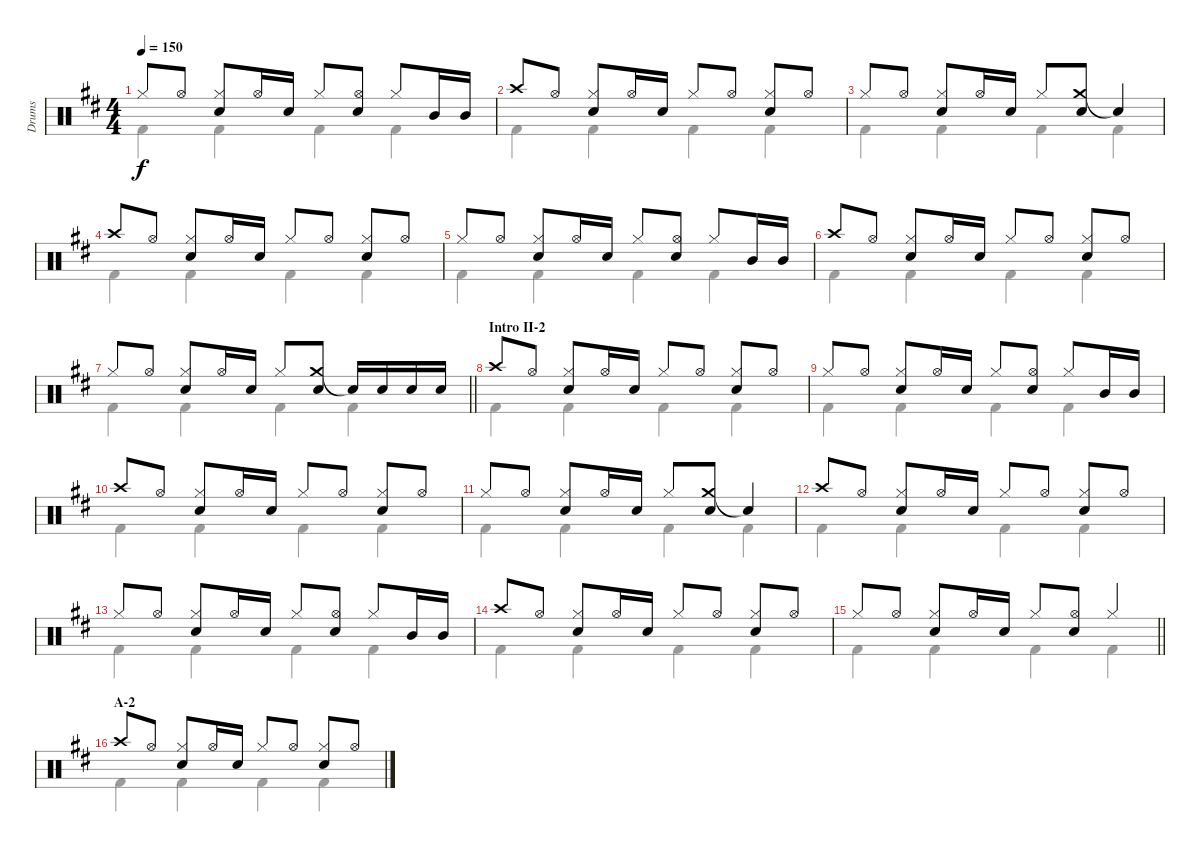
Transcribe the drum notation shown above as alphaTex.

\track ("Drums" "Drums") {instrument percussion}
\staff {score}
\articulation defaults
\voice
\ts (4 4)
\tempo 150
\clef neutral
\ks d "Hi-Hat (closed)".8{dy f} "Hi-Hat (open)".8
("Hi-Hat (closed)" "Snare (hit) 2").8 "Hi-Hat (open)".16 "Snare (hit) 2".16 "Hi-Hat (closed)".8 ("Hi-Hat (open)" "Snare (hit) 2").8 "Hi-Hat (closed)".8 "Mid Tom (hit)".16 "Mid Tom (hit)".16 |
"Crash high (hit)".8 "Hi-Hat (open)".8 ("Hi-Hat (closed)" "Snare (hit) 2").8 "Hi-Hat (open)".16 "Snare (hit) 2".16 "Hi-Hat (closed)".8 "Hi-Hat (open)".8 ("Hi-Hat (closed)" "Snare (hit) 2").8 "Hi-Hat (open)".8 |
"Hi-Hat (closed)".8 "Hi-Hat (open)".8 ("Hi-Hat (closed)" "Snare (hit) 2").8 "Hi-Hat (open)".16 "Snare (hit) 2".16 "Hi-Hat (closed)".8 ("Crash medium (hit)" "Snare (hit) 2").8 "Snare (hit)"{t}.4 |
"Crash high (hit)".8 "Hi-Hat (open)".8 ("Hi-Hat (closed)" "Snare (hit) 2").8 "Hi-Hat (open)".16 "Snare (hit) 2".16 "Hi-Hat (closed)".8 "Hi-Hat (open)".8 ("Hi-Hat (closed)" "Snare (hit) 2").8 "Hi-Hat (open)".8 |
"Hi-Hat (closed)".8 "Hi-Hat (open)".8 ("Hi-Hat (closed)" "Snare (hit) 2").8 "Hi-Hat (open)".16 "Snare (hit) 2".16 "Hi-Hat (closed)".8 ("Hi-Hat (open)" "Snare (hit) 2").8 "Hi-Hat (closed)".8 "Mid Tom (hit)".16 "Mid Tom (hit)".16 |
"Crash high (hit)".8 "Hi-Hat (open)".8 ("Hi-Hat (closed)" "Snare (hit) 2").8 "Hi-Hat (open)".16 "Snare (hit) 2".16 "Hi-Hat (closed)".8 "Hi-Hat (open)".8 ("Hi-Hat (closed)" "Snare (hit) 2").8 "Hi-Hat (open)".8 |
\barLineRight lightlight "Hi-Hat (closed)".8 "Hi-Hat (open)".8
("Hi-Hat (closed)" "Snare (hit) 2").8 "Hi-Hat (open)".16 "Snare (hit) 2".16 "Hi-Hat (closed)".8 ("Crash medium (hit)" "Snare (hit) 2").8 "Snare (hit)"{t}.16 "Snare (hit) 2".16 "Snare (hit) 2".16 "Snare (hit) 2".16 |
\section ("" "Intro II-2")
"Crash high (hit)".8 "Hi-Hat (open)".8 ("Hi-Hat (closed)" "Snare (hit) 2").8 "Hi-Hat (open)".16 "Snare (hit) 2".16 "Hi-Hat (closed)".8 "Hi-Hat (open)".8 ("Hi-Hat (closed)" "Snare (hit) 2").8 "Hi-Hat (open)".8 |
"Hi-Hat (closed)".8 "Hi-Hat (open)".8 ("Hi-Hat (closed)" "Snare (hit) 2").8 "Hi-Hat (open)".16 "Snare (hit) 2".16 "Hi-Hat (closed)".8 ("Hi-Hat (open)" "Snare (hit) 2").8 "Hi-Hat (closed)".8 "Mid Tom (hit)".16 "Mid Tom (hit)".16 |
"Crash high (hit)".8 "Hi-Hat (open)".8 ("Hi-Hat (closed)" "Snare (hit) 2").8 "Hi-Hat (open)".16 "Snare (hit) 2".16 "Hi-Hat (closed)".8 "Hi-Hat (open)".8 ("Hi-Hat (closed)" "Snare (hit) 2").8 "Hi-Hat (open)".8 |
"Hi-Hat (closed)".8 "Hi-Hat (open)".8 ("Hi-Hat (closed)" "Snare (hit) 2").8 "Hi-Hat (open)".16 "Snare (hit) 2".16 "Hi-Hat (closed)".8 ("Crash medium (hit)" "Snare (hit) 2").8 "Snare (hit)"{t}.4 |
"Crash high (hit)".8 "Hi-Hat (open)".8 ("Hi-Hat (closed)" "Snare (hit) 2").8 "Hi-Hat (open)".16 "Snare (hit) 2".16 "Hi-Hat (closed)".8 "Hi-Hat (open)".8 ("Hi-Hat (closed)" "Snare (hit) 2").8 "Hi-Hat (open)".8 |
"Hi-Hat (closed)".8 "Hi-Hat (open)".8 ("Hi-Hat (closed)" "Snare (hit) 2").8 "Hi-Hat (open)".16 "Snare (hit) 2".16 "Hi-Hat (closed)".8 ("Hi-Hat (open)" "Snare (hit) 2").8 "Hi-Hat (closed)".8 "Mid Tom (hit)".16 "Mid Tom (hit)".16 |
"Crash high (hit)".8 "Hi-Hat (open)".8 ("Hi-Hat (closed)" "Snare (hit) 2").8 "Hi-Hat (open)".16 "Snare (hit) 2".16 "Hi-Hat (closed)".8 "Hi-Hat (open)".8 ("Hi-Hat (closed)" "Snare (hit) 2").8 "Hi-Hat (open)".8 |
\barLineRight lightlight "Hi-Hat (closed)".8 "Hi-Hat (open)".8
("Hi-Hat (closed)" "Snare (hit) 2").8 "Hi-Hat (open)".16 "Snare (hit) 2".16 "Hi-Hat (closed)".8 ("Hi-Hat (open)" "Snare (hit) 2").8 "Hi-Hat (closed)".4 |
\section ("" "A-2")
"Crash high (hit)".8 "Hi-Hat (open)".8 ("Hi-Hat (closed)" "Snare (hit) 2").8 "Hi-Hat (open)".16 "Snare (hit) 2".16 "Hi-Hat (closed)".8 "Hi-Hat (open)".8 ("Hi-Hat (closed)" "Snare (hit) 2").8 "Hi-Hat (open)".8
\voice
\clef neutral
\ottava regular
\simile none
\ks d "Kick (hit) 2".4{dy f} "Kick (hit) 2".4 "Kick (hit) 2".4 "Kick (hit) 2".4
|
"Kick (hit) 2".4 "Kick (hit) 2".4 "Kick (hit) 2".4 "Kick (hit) 2".4 |
"Kick (hit) 2".4 "Kick (hit) 2".4 "Kick (hit) 2".4 "Kick (hit) 2".4 |
"Kick (hit) 2".4 "Kick (hit) 2".4 "Kick (hit) 2".4 "Kick (hit) 2".4 |
"Kick (hit) 2".4 "Kick (hit) 2".4 "Kick (hit) 2".4 "Kick (hit) 2".4 |
"Kick (hit) 2".4 "Kick (hit) 2".4 "Kick (hit) 2".4 "Kick (hit) 2".4 |
\barLineRight lightlight "Kick (hit) 2".4 "Kick (hit) 2".4 "Kick (hit) 2".4 "Kick (hit) 2".4
|
"Kick (hit) 2".4 "Kick (hit) 2".4 "Kick (hit) 2".4 "Kick (hit) 2".4 |
"Kick (hit) 2".4 "Kick (hit) 2".4 "Kick (hit) 2".4 "Kick (hit) 2".4 |
"Kick (hit) 2".4 "Kick (hit) 2".4 "Kick (hit) 2".4 "Kick (hit) 2".4 |
"Kick (hit) 2".4 "Kick (hit) 2".4 "Kick (hit) 2".4 "Kick (hit) 2".4 |
"Kick (hit) 2".4 "Kick (hit) 2".4 "Kick (hit) 2".4 "Kick (hit) 2".4 |
"Kick (hit) 2".4 "Kick (hit) 2".4 "Kick (hit) 2".4 "Kick (hit) 2".4 |
"Kick (hit) 2".4 "Kick (hit) 2".4 "Kick (hit) 2".4 "Kick (hit) 2".4 |
\barLineRight lightlight "Kick (hit) 2".4 "Kick (hit) 2".4 "Kick (hit) 2".4 "Kick (hit) 2".4
|
"Kick (hit) 2".4 "Kick (hit) 2".4 "Kick (hit) 2".4 "Kick (hit) 2".4
